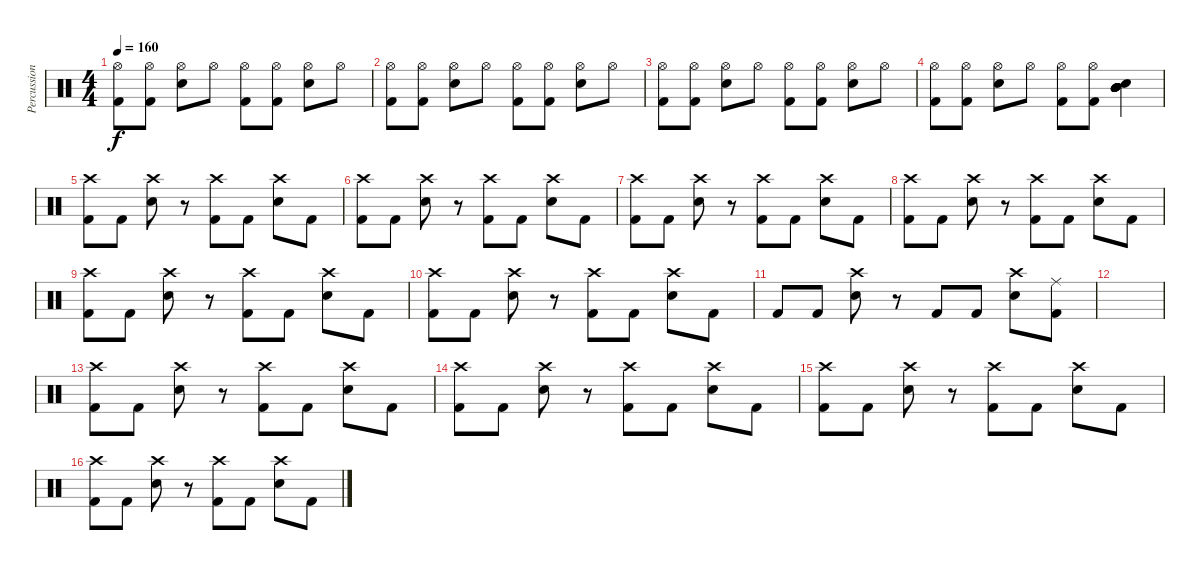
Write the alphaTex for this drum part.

\track ("Percussion" "Percussion") {instrument percussion}
\staff {score}
\articulation defaults
\ts (4 4)
\tempo 160
\clef neutral
\ks c
("Kick (hit) 2" "Hi-Hat (open)").8{dy f} ("Kick (hit) 2" "Hi-Hat (open)").8 ("Snare (hit) 2" "Hi-Hat (open)").8 "Hi-Hat (open)".8 ("Kick (hit) 2" "Hi-Hat (open)").8 ("Kick (hit) 2" "Hi-Hat (open)").8 ("Snare (hit) 2" "Hi-Hat (open)").8 "Hi-Hat (open)".8 |
("Kick (hit) 2" "Hi-Hat (open)").8 ("Kick (hit) 2" "Hi-Hat (open)").8 ("Snare (hit) 2" "Hi-Hat (open)").8 "Hi-Hat (open)".8 ("Kick (hit) 2" "Hi-Hat (open)").8 ("Kick (hit) 2" "Hi-Hat (open)").8 ("Snare (hit) 2" "Hi-Hat (open)").8 "Hi-Hat (open)".8 |
("Kick (hit) 2" "Hi-Hat (open)").8 ("Kick (hit) 2" "Hi-Hat (open)").8 ("Snare (hit) 2" "Hi-Hat (open)").8 "Hi-Hat (open)".8 ("Kick (hit) 2" "Hi-Hat (open)").8 ("Kick (hit) 2" "Hi-Hat (open)").8 ("Snare (hit) 2" "Hi-Hat (open)").8 "Hi-Hat (open)".8 |
("Kick (hit) 2" "Hi-Hat (open)").8 ("Kick (hit) 2" "Hi-Hat (open)").8 ("Snare (hit) 2" "Hi-Hat (open)").8 "Hi-Hat (open)".8 ("Kick (hit) 2" "Hi-Hat (open)").8 ("Kick (hit) 2" "Hi-Hat (open)").8 ("Snare (hit) 2" "Mid Tom (hit)" "Mid Tom (hit)" "Mid Tom (hit)" "Mid Tom (hit)" "Mid Tom (hit)").4 |
("Crash high (hit)" "Kick (hit) 2").8 "Kick (hit) 2".8 ("Crash high (hit)" "Snare (hit) 2").8 r.8 ("Crash high (hit)" "Kick (hit) 2").8 "Kick (hit) 2".8 ("Crash high (hit)" "Snare (hit) 2").8 "Kick (hit) 2".8 |
("Crash high (hit)" "Kick (hit) 2").8 "Kick (hit) 2".8 ("Crash high (hit)" "Snare (hit) 2").8 r.8 ("Crash high (hit)" "Kick (hit) 2").8 "Kick (hit) 2".8 ("Crash high (hit)" "Snare (hit) 2").8 "Kick (hit) 2".8 |
("Crash high (hit)" "Kick (hit) 2").8 "Kick (hit) 2".8 ("Crash high (hit)" "Snare (hit) 2").8 r.8 ("Crash high (hit)" "Kick (hit) 2").8 "Kick (hit) 2".8 ("Crash high (hit)" "Snare (hit) 2").8 "Kick (hit) 2".8 |
("Crash high (hit)" "Kick (hit) 2").8 "Kick (hit) 2".8 ("Crash high (hit)" "Snare (hit) 2").8 r.8 ("Crash high (hit)" "Kick (hit) 2").8 "Kick (hit) 2".8 ("Crash high (hit)" "Snare (hit) 2").8 "Kick (hit) 2".8 |
("Crash high (hit)" "Kick (hit) 2").8 "Kick (hit) 2".8 ("Crash high (hit)" "Snare (hit) 2").8 r.8 ("Crash high (hit)" "Kick (hit) 2").8 "Kick (hit) 2".8 ("Crash high (hit)" "Snare (hit) 2").8 "Kick (hit) 2".8 |
("Crash high (hit)" "Kick (hit) 2").8 "Kick (hit) 2".8 ("Crash high (hit)" "Snare (hit) 2").8 r.8 ("Crash high (hit)" "Kick (hit) 2").8 "Kick (hit) 2".8 ("Crash high (hit)" "Snare (hit) 2").8 "Kick (hit) 2".8 |
"Kick (hit) 2".8 "Kick (hit) 2".8 ("Crash high (hit)" "Snare (hit) 2").8 r.8 "Kick (hit) 2".8 "Kick (hit) 2".8 ("Crash high (hit)" "Snare (hit) 2").8 ("Ride (middle)" "Kick (hit) 2").8 |
|
("Crash high (hit)" "Kick (hit) 2").8 "Kick (hit) 2".8 ("Crash high (hit)" "Snare (hit) 2").8 r.8 ("Crash high (hit)" "Kick (hit) 2").8 "Kick (hit) 2".8 ("Crash high (hit)" "Snare (hit) 2").8 "Kick (hit) 2".8 |
("Crash high (hit)" "Kick (hit) 2").8 "Kick (hit) 2".8 ("Crash high (hit)" "Snare (hit) 2").8 r.8 ("Crash high (hit)" "Kick (hit) 2").8 "Kick (hit) 2".8 ("Crash high (hit)" "Snare (hit) 2").8 "Kick (hit) 2".8 |
("Crash high (hit)" "Kick (hit) 2").8 "Kick (hit) 2".8 ("Crash high (hit)" "Snare (hit) 2").8 r.8 ("Crash high (hit)" "Kick (hit) 2").8 "Kick (hit) 2".8 ("Crash high (hit)" "Snare (hit) 2").8 "Kick (hit) 2".8 |
("Crash high (hit)" "Kick (hit) 2").8 "Kick (hit) 2".8 ("Crash high (hit)" "Snare (hit) 2").8 r.8 ("Crash high (hit)" "Kick (hit) 2").8 "Kick (hit) 2".8 ("Crash high (hit)" "Snare (hit) 2").8 "Kick (hit) 2".8
